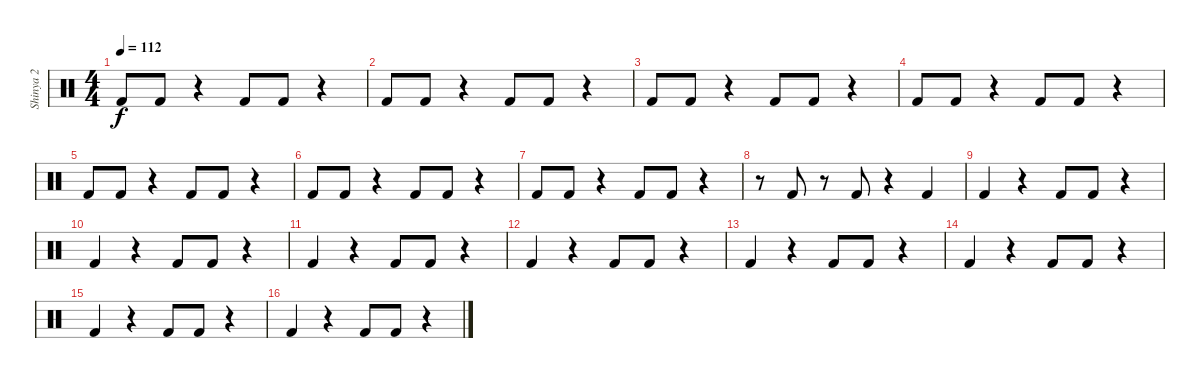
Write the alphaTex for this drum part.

\track ("Shinya 2" "Shinya 2") {instrument percussion}
\staff {score}
\articulation defaults
\ts (4 4)
\tempo 112
\clef neutral
\ks c "Kick (hit) 2".8{dy f} "Kick (hit) 2".8
r.4 "Kick (hit) 2".8 "Kick (hit) 2".8 r.4 |
"Kick (hit) 2".8 "Kick (hit) 2".8 r.4 "Kick (hit) 2".8 "Kick (hit) 2".8 r.4 |
"Kick (hit) 2".8 "Kick (hit) 2".8 r.4 "Kick (hit) 2".8 "Kick (hit) 2".8 r.4 |
"Kick (hit) 2".8 "Kick (hit) 2".8 r.4 "Kick (hit) 2".8 "Kick (hit) 2".8 r.4 |
"Kick (hit) 2".8 "Kick (hit) 2".8 r.4 "Kick (hit) 2".8 "Kick (hit) 2".8 r.4 |
"Kick (hit) 2".8 "Kick (hit) 2".8 r.4 "Kick (hit) 2".8 "Kick (hit) 2".8 r.4 |
"Kick (hit) 2".8 "Kick (hit) 2".8 r.4 "Kick (hit) 2".8 "Kick (hit) 2".8 r.4 |
r.8 "Kick (hit) 2".8 r.8 "Kick (hit) 2".8 r.4 "Kick (hit) 2".4 |
"Kick (hit) 2".4 r.4 "Kick (hit) 2".8 "Kick (hit) 2".8 r.4 |
"Kick (hit) 2".4 r.4 "Kick (hit) 2".8 "Kick (hit) 2".8 r.4 |
"Kick (hit) 2".4 r.4 "Kick (hit) 2".8 "Kick (hit) 2".8 r.4 |
"Kick (hit) 2".4 r.4 "Kick (hit) 2".8 "Kick (hit) 2".8 r.4 |
"Kick (hit) 2".4 r.4 "Kick (hit) 2".8 "Kick (hit) 2".8 r.4 |
"Kick (hit) 2".4 r.4 "Kick (hit) 2".8 "Kick (hit) 2".8 r.4 |
"Kick (hit) 2".4 r.4 "Kick (hit) 2".8 "Kick (hit) 2".8 r.4 |
"Kick (hit) 2".4 r.4 "Kick (hit) 2".8 "Kick (hit) 2".8 r.4
